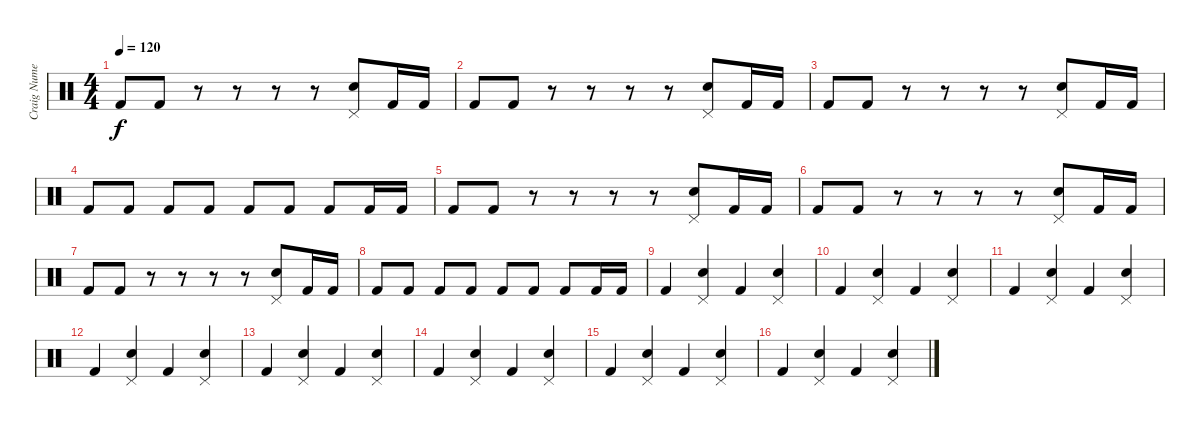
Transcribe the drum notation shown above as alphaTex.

\track ("Craig Numenbacher - Drums" "Craig Nume") {instrument percussion}
\staff {score}
\articulation defaults
\ts (4 4)
\tempo 120
\clef neutral
\ks c "Kick (hit) 2".8{dy f} "Kick (hit) 2".8
r.8 r.8 r.8 r.8 ("Pedal Hi-Hat (hit)" "Snare (hit) 2").8 "Kick (hit) 2".16 "Kick (hit) 2".16 |
"Kick (hit) 2".8 "Kick (hit) 2".8 r.8 r.8 r.8 r.8 ("Pedal Hi-Hat (hit)" "Snare (hit) 2").8 "Kick (hit) 2".16 "Kick (hit) 2".16 |
"Kick (hit) 2".8 "Kick (hit) 2".8 r.8 r.8 r.8 r.8 ("Pedal Hi-Hat (hit)" "Snare (hit) 2").8 "Kick (hit) 2".16 "Kick (hit) 2".16 |
"Kick (hit) 2".8 "Kick (hit) 2".8 "Kick (hit) 2".8 "Kick (hit) 2".8 "Kick (hit) 2".8 "Kick (hit) 2".8 "Kick (hit) 2".8 "Kick (hit) 2".16 "Kick (hit) 2".16 |
"Kick (hit) 2".8 "Kick (hit) 2".8 r.8 r.8 r.8 r.8 ("Pedal Hi-Hat (hit)" "Snare (hit) 2").8 "Kick (hit) 2".16 "Kick (hit) 2".16 |
"Kick (hit) 2".8 "Kick (hit) 2".8 r.8 r.8 r.8 r.8 ("Pedal Hi-Hat (hit)" "Snare (hit) 2").8 "Kick (hit) 2".16 "Kick (hit) 2".16 |
"Kick (hit) 2".8 "Kick (hit) 2".8 r.8 r.8 r.8 r.8 ("Pedal Hi-Hat (hit)" "Snare (hit) 2").8 "Kick (hit) 2".16 "Kick (hit) 2".16 |
"Kick (hit) 2".8 "Kick (hit) 2".8 "Kick (hit) 2".8 "Kick (hit) 2".8 "Kick (hit) 2".8 "Kick (hit) 2".8 "Kick (hit) 2".8 "Kick (hit) 2".16 "Kick (hit) 2".16 |
"Kick (hit) 2".4 ("Pedal Hi-Hat (hit)" "Snare (hit) 2").4 "Kick (hit) 2".4 ("Pedal Hi-Hat (hit)" "Snare (hit) 2").4 |
"Kick (hit) 2".4 ("Pedal Hi-Hat (hit)" "Snare (hit) 2").4 "Kick (hit) 2".4 ("Pedal Hi-Hat (hit)" "Snare (hit) 2").4 |
"Kick (hit) 2".4 ("Pedal Hi-Hat (hit)" "Snare (hit) 2").4 "Kick (hit) 2".4 ("Pedal Hi-Hat (hit)" "Snare (hit) 2").4 |
"Kick (hit) 2".4 ("Pedal Hi-Hat (hit)" "Snare (hit) 2").4 "Kick (hit) 2".4 ("Pedal Hi-Hat (hit)" "Snare (hit) 2").4 |
"Kick (hit) 2".4 ("Pedal Hi-Hat (hit)" "Snare (hit) 2").4 "Kick (hit) 2".4 ("Pedal Hi-Hat (hit)" "Snare (hit) 2").4 |
"Kick (hit) 2".4 ("Pedal Hi-Hat (hit)" "Snare (hit) 2").4 "Kick (hit) 2".4 ("Pedal Hi-Hat (hit)" "Snare (hit) 2").4 |
"Kick (hit) 2".4 ("Pedal Hi-Hat (hit)" "Snare (hit) 2").4 "Kick (hit) 2".4 ("Pedal Hi-Hat (hit)" "Snare (hit) 2").4 |
"Kick (hit) 2".4 ("Pedal Hi-Hat (hit)" "Snare (hit) 2").4 "Kick (hit) 2".4 ("Pedal Hi-Hat (hit)" "Snare (hit) 2").4
